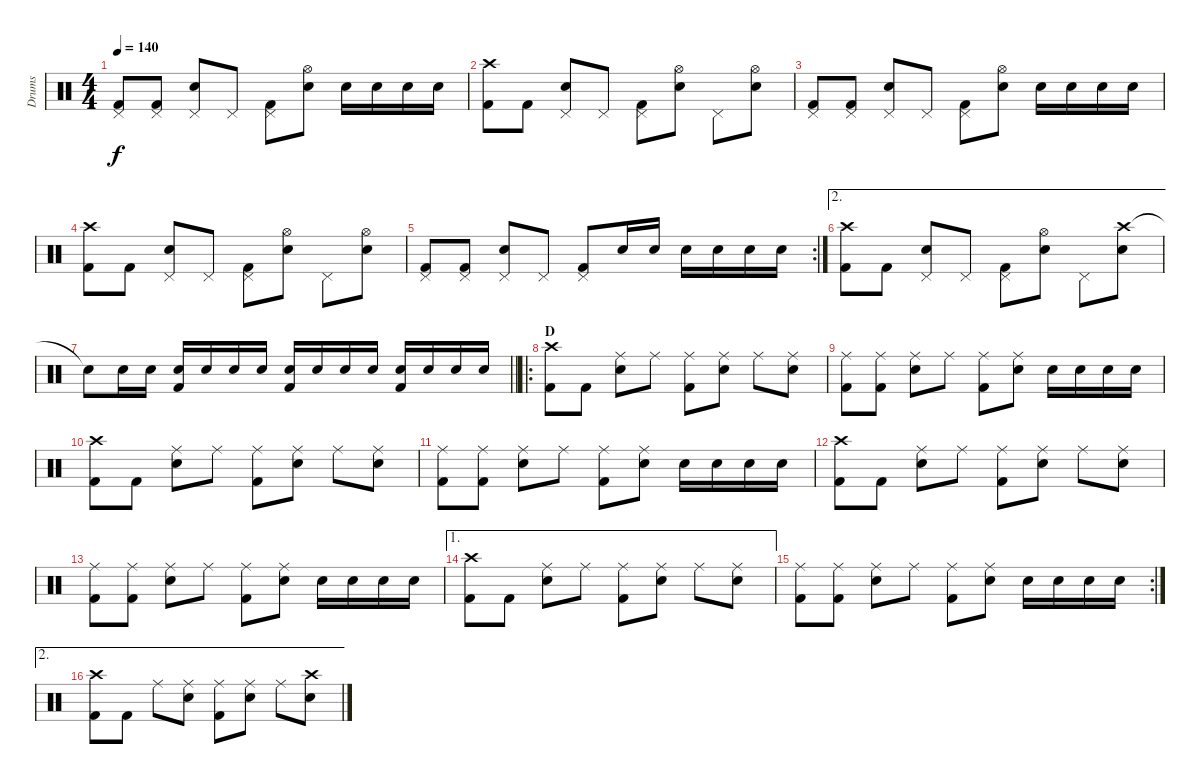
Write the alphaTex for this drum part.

\track ("Drums" "Drums") {instrument percussion}
\staff {score}
\articulation defaults
\ts (4 4)
\tempo 140
\clef neutral
\ks c
("Pedal Hi-Hat (hit)" "Kick (hit) 2").8{dy f} ("Pedal Hi-Hat (hit)" "Kick (hit) 2").8 ("Pedal Hi-Hat (hit)" "Snare (hit) 2").8 "Pedal Hi-Hat (hit)".8 ("Pedal Hi-Hat (hit)" "Kick (hit) 2").8 ("Hi-Hat (open)" "Snare (hit) 2").8 "Snare (hit) 2".16 "Snare (hit) 2".16 "Snare (hit) 2".16 "Snare (hit) 2".16 |
("Crash high (hit)" "Kick (hit) 2").8 "Kick (hit) 2".8 ("Pedal Hi-Hat (hit)" "Snare (hit) 2").8 "Pedal Hi-Hat (hit)".8 ("Pedal Hi-Hat (hit)" "Kick (hit) 2").8 ("Hi-Hat (open)" "Snare (hit) 2").8 "Pedal Hi-Hat (hit)".8 ("Hi-Hat (open)" "Snare (hit) 2").8 |
("Pedal Hi-Hat (hit)" "Kick (hit) 2").8 ("Pedal Hi-Hat (hit)" "Kick (hit) 2").8 ("Pedal Hi-Hat (hit)" "Snare (hit) 2").8 "Pedal Hi-Hat (hit)".8 ("Pedal Hi-Hat (hit)" "Kick (hit) 2").8 ("Hi-Hat (open)" "Snare (hit) 2").8 "Snare (hit) 2".16 "Snare (hit) 2".16 "Snare (hit) 2".16 "Snare (hit) 2".16 |
("Crash high (hit)" "Kick (hit) 2").8 "Kick (hit) 2".8 ("Pedal Hi-Hat (hit)" "Snare (hit) 2").8 "Pedal Hi-Hat (hit)".8 ("Pedal Hi-Hat (hit)" "Kick (hit) 2").8 ("Hi-Hat (open)" "Snare (hit) 2").8 "Pedal Hi-Hat (hit)".8 ("Hi-Hat (open)" "Snare (hit) 2").8 |
\rc 2
("Pedal Hi-Hat (hit)" "Kick (hit) 2").8 ("Pedal Hi-Hat (hit)" "Kick (hit) 2").8 ("Pedal Hi-Hat (hit)" "Snare (hit) 2").8 "Pedal Hi-Hat (hit)".8 ("Pedal Hi-Hat (hit)" "Kick (hit) 2").8 "Snare (hit) 2".16 "Snare (hit) 2".16 "Snare (hit) 2".16 "Snare (hit) 2".16 "Snare (hit) 2".16 "Snare (hit) 2".16 |
\ae 2
("Crash high (hit)" "Kick (hit) 2").8 "Kick (hit) 2".8 ("Pedal Hi-Hat (hit)" "Snare (hit) 2").8 "Pedal Hi-Hat (hit)".8 ("Pedal Hi-Hat (hit)" "Kick (hit) 2").8 ("Hi-Hat (open)" "Snare (hit) 2").8 "Pedal Hi-Hat (hit)".8 ("Crash high (hit)" "Snare (hit) 2").8 |
\barLineRight lightlight "Snare (hit)"{t}.8 "Snare (hit) 2".16 "Snare (hit) 2".16
("Snare (hit) 2" "Kick (hit) 2").16 "Snare (hit) 2".16 "Snare (hit) 2".16 "Snare (hit) 2".16 ("Snare (hit) 2" "Kick (hit) 2").16 "Snare (hit) 2".16 "Snare (hit) 2".16 "Snare (hit) 2".16 ("Snare (hit) 2" "Kick (hit) 2").16 "Snare (hit) 2".16 "Snare (hit) 2".16 "Snare (hit) 2".16 |
\ro
\section ("" "D")
("Crash high (hit)" "Kick (hit) 2").8 "Kick (hit) 2".8 ("Ride (middle)" "Snare (hit) 2").8 "Ride (middle)".8 ("Ride (middle)" "Kick (hit) 2").8 ("Ride (middle)" "Snare (hit) 2").8 "Ride (middle)".8 ("Ride (middle)" "Snare (hit) 2").8 |
("Ride (middle)" "Kick (hit) 2").8 ("Ride (middle)" "Kick (hit) 2").8 ("Ride (middle)" "Snare (hit) 2").8 "Ride (middle)".8 ("Ride (middle)" "Kick (hit) 2").8 ("Ride (middle)" "Snare (hit) 2").8 "Snare (hit) 2".16 "Snare (hit) 2".16 "Snare (hit) 2".16 "Snare (hit) 2".16 |
("Crash high (hit)" "Kick (hit) 2").8 "Kick (hit) 2".8 ("Ride (middle)" "Snare (hit) 2").8 "Ride (middle)".8 ("Ride (middle)" "Kick (hit) 2").8 ("Ride (middle)" "Snare (hit) 2").8 "Ride (middle)".8 ("Ride (middle)" "Snare (hit) 2").8 |
("Ride (middle)" "Kick (hit) 2").8 ("Ride (middle)" "Kick (hit) 2").8 ("Ride (middle)" "Snare (hit) 2").8 "Ride (middle)".8 ("Ride (middle)" "Kick (hit) 2").8 ("Ride (middle)" "Snare (hit) 2").8 "Snare (hit) 2".16 "Snare (hit) 2".16 "Snare (hit) 2".16 "Snare (hit) 2".16 |
("Crash high (hit)" "Kick (hit) 2").8 "Kick (hit) 2".8 ("Ride (middle)" "Snare (hit) 2").8 "Ride (middle)".8 ("Ride (middle)" "Kick (hit) 2").8 ("Ride (middle)" "Snare (hit) 2").8 "Ride (middle)".8 ("Ride (middle)" "Snare (hit) 2").8 |
("Ride (middle)" "Kick (hit) 2").8 ("Ride (middle)" "Kick (hit) 2").8 ("Ride (middle)" "Snare (hit) 2").8 "Ride (middle)".8 ("Ride (middle)" "Kick (hit) 2").8 ("Ride (middle)" "Snare (hit) 2").8 "Snare (hit) 2".16 "Snare (hit) 2".16 "Snare (hit) 2".16 "Snare (hit) 2".16 |
\ae 1
("Crash high (hit)" "Kick (hit) 2").8 "Kick (hit) 2".8 ("Ride (middle)" "Snare (hit) 2").8 "Ride (middle)".8 ("Ride (middle)" "Kick (hit) 2").8 ("Ride (middle)" "Snare (hit) 2").8 "Ride (middle)".8 ("Ride (middle)" "Snare (hit) 2").8 |
\rc 2
("Ride (middle)" "Kick (hit) 2").8 ("Ride (middle)" "Kick (hit) 2").8 ("Ride (middle)" "Snare (hit) 2").8 "Ride (middle)".8 ("Ride (middle)" "Kick (hit) 2").8 ("Ride (middle)" "Snare (hit) 2").8 "Snare (hit) 2".16 "Snare (hit) 2".16 "Snare (hit) 2".16 "Snare (hit) 2".16 |
\ae 2
("Crash high (hit)" "Kick (hit) 2").8 "Kick (hit) 2".8 "Ride (middle)".8 ("Ride (middle)" "Snare (hit) 2").8 ("Ride (middle)" "Kick (hit) 2").8 ("Ride (middle)" "Snare (hit) 2").8 "Ride (middle)".8 ("Crash high (hit)" "Snare (hit) 2").8
